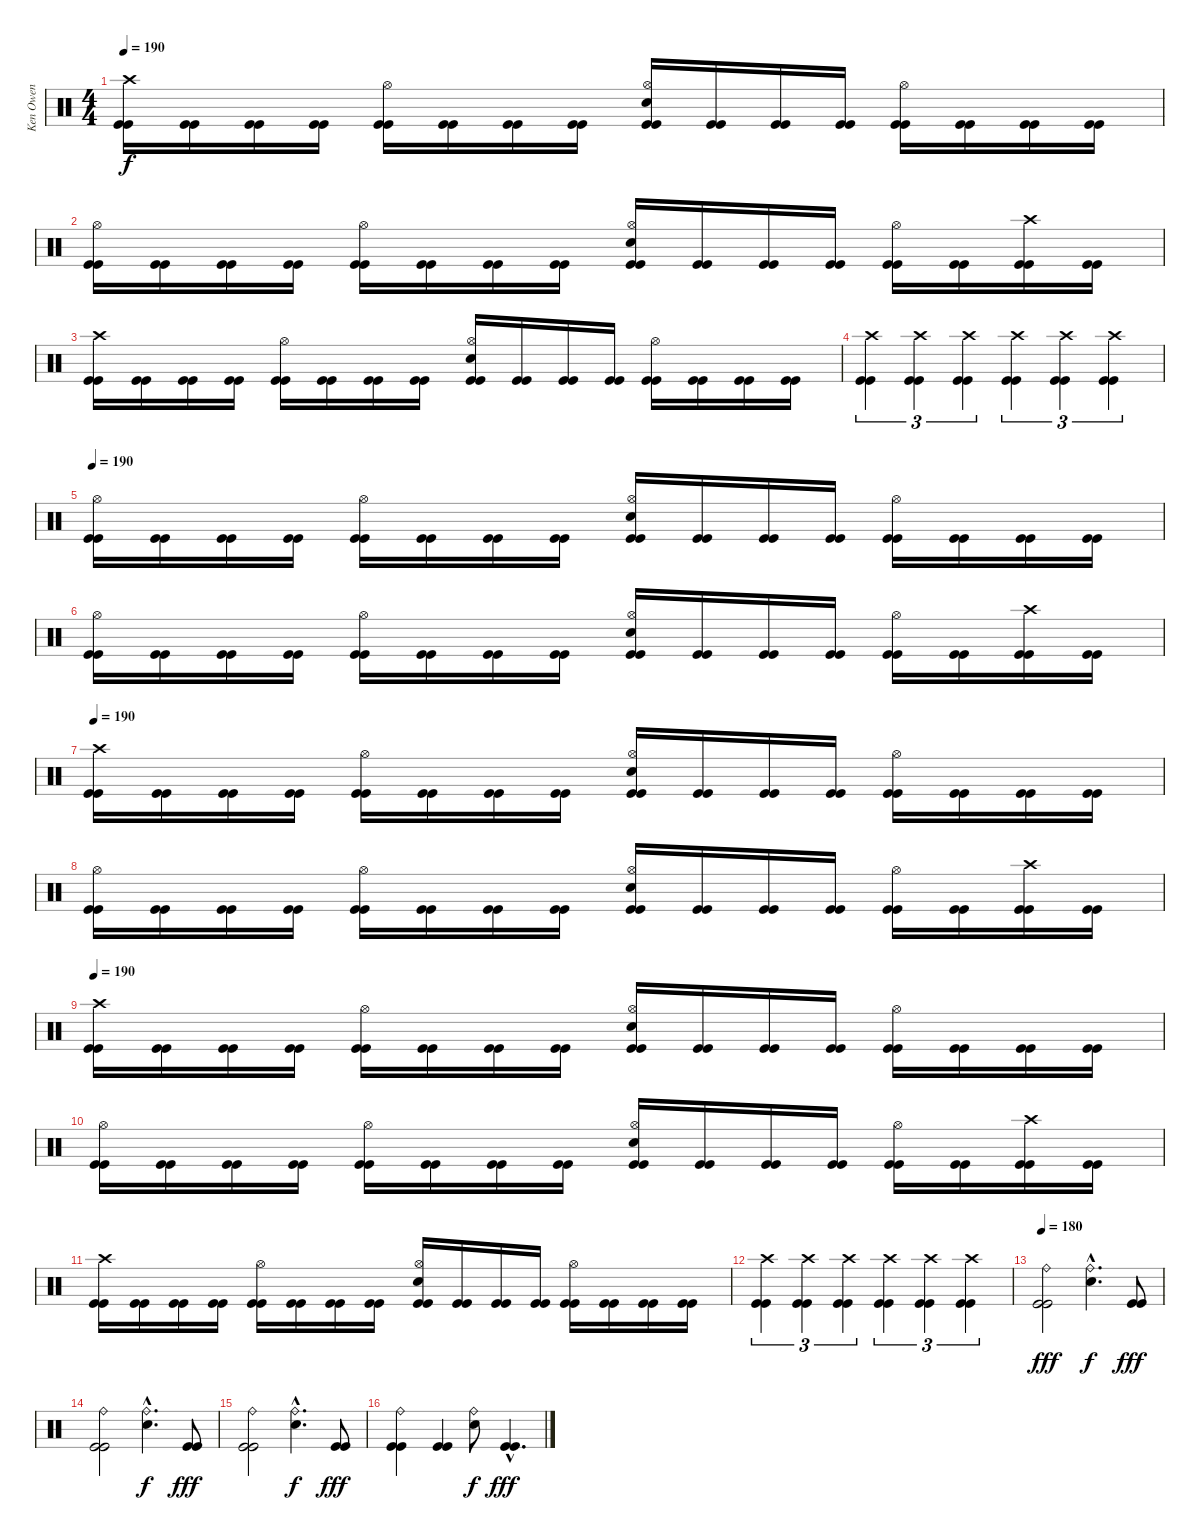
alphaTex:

\track ("Ken Owen" "Ken Owen") {instrument percussion}
\staff {score}
\articulation defaults
\ts (4 4)
\tempo 190
\clef neutral
\ks c
("Crash high (hit)" "Kick (hit)" "Kick (hit)").16{dy f} ("Kick (hit)" "Kick (hit)").16 ("Kick (hit)" "Kick (hit)").16 ("Kick (hit)" "Kick (hit)").16 ("Hi-Hat (open)" "Kick (hit)" "Kick (hit)").16 ("Kick (hit)" "Kick (hit)").16 ("Kick (hit)" "Kick (hit)").16 ("Kick (hit)" "Kick (hit)").16 ("Hi-Hat (open)" "Snare (hit) 2" "Kick (hit)" "Kick (hit)").16 ("Kick (hit)" "Kick (hit)").16 ("Kick (hit)" "Kick (hit)").16 ("Kick (hit)" "Kick (hit)").16 ("Hi-Hat (open)" "Kick (hit)" "Kick (hit)").16 ("Kick (hit)" "Kick (hit)").16 ("Kick (hit)" "Kick (hit)").16 ("Kick (hit)" "Kick (hit)").16 |
("Hi-Hat (open)" "Kick (hit)" "Kick (hit)").16 ("Kick (hit)" "Kick (hit)").16 ("Kick (hit)" "Kick (hit)").16 ("Kick (hit)" "Kick (hit)").16 ("Hi-Hat (open)" "Kick (hit)" "Kick (hit)").16 ("Kick (hit)" "Kick (hit)").16 ("Kick (hit)" "Kick (hit)").16 ("Kick (hit)" "Kick (hit)").16 ("Hi-Hat (open)" "Snare (hit) 2" "Kick (hit)" "Kick (hit)").16 ("Kick (hit)" "Kick (hit)").16 ("Kick (hit)" "Kick (hit)").16 ("Kick (hit)" "Kick (hit)").16 ("Hi-Hat (open)" "Kick (hit)" "Kick (hit)").16 ("Kick (hit)" "Kick (hit)").16 ("Crash high (hit)" "Kick (hit)" "Kick (hit)").16 ("Kick (hit)" "Kick (hit)").16 |
("Crash high (hit)" "Kick (hit)" "Kick (hit)").16 ("Kick (hit)" "Kick (hit)").16 ("Kick (hit)" "Kick (hit)").16 ("Kick (hit)" "Kick (hit)").16 ("Hi-Hat (open)" "Kick (hit)" "Kick (hit)").16 ("Kick (hit)" "Kick (hit)").16 ("Kick (hit)" "Kick (hit)").16 ("Kick (hit)" "Kick (hit)").16 ("Hi-Hat (open)" "Snare (hit) 2" "Kick (hit)" "Kick (hit)").16 ("Kick (hit)" "Kick (hit)").16 ("Kick (hit)" "Kick (hit)").16 ("Kick (hit)" "Kick (hit)").16 ("Hi-Hat (open)" "Kick (hit)" "Kick (hit)").16 ("Kick (hit)" "Kick (hit)").16 ("Kick (hit)" "Kick (hit)").16 ("Kick (hit)" "Kick (hit)").16 |
("Crash high (hit)" "Kick (hit)" "Kick (hit)").4{tu (3 2)} ("Crash high (hit)" "Kick (hit)" "Kick (hit)").4{tu (3 2)} ("Crash high (hit)" "Kick (hit)" "Kick (hit)").4{tu (3 2)} ("Crash high (hit)" "Kick (hit)" "Kick (hit)").4{tu (3 2)} ("Crash high (hit)" "Kick (hit)" "Kick (hit)").4{tu (3 2)} ("Crash high (hit)" "Kick (hit)" "Kick (hit)").4{tu (3 2)} |
\tempo 190
("Hi-Hat (open)" "Kick (hit)" "Kick (hit)").16 ("Kick (hit)" "Kick (hit)").16 ("Kick (hit)" "Kick (hit)").16 ("Kick (hit)" "Kick (hit)").16 ("Hi-Hat (open)" "Kick (hit)" "Kick (hit)").16 ("Kick (hit)" "Kick (hit)").16 ("Kick (hit)" "Kick (hit)").16 ("Kick (hit)" "Kick (hit)").16 ("Hi-Hat (open)" "Snare (hit) 2" "Kick (hit)" "Kick (hit)").16 ("Kick (hit)" "Kick (hit)").16 ("Kick (hit)" "Kick (hit)").16 ("Kick (hit)" "Kick (hit)").16 ("Hi-Hat (open)" "Kick (hit)" "Kick (hit)").16 ("Kick (hit)" "Kick (hit)").16 ("Kick (hit)" "Kick (hit)").16 ("Kick (hit)" "Kick (hit)").16 |
("Hi-Hat (open)" "Kick (hit)" "Kick (hit)").16 ("Kick (hit)" "Kick (hit)").16 ("Kick (hit)" "Kick (hit)").16 ("Kick (hit)" "Kick (hit)").16 ("Hi-Hat (open)" "Kick (hit)" "Kick (hit)").16 ("Kick (hit)" "Kick (hit)").16 ("Kick (hit)" "Kick (hit)").16 ("Kick (hit)" "Kick (hit)").16 ("Hi-Hat (open)" "Snare (hit) 2" "Kick (hit)" "Kick (hit)").16 ("Kick (hit)" "Kick (hit)").16 ("Kick (hit)" "Kick (hit)").16 ("Kick (hit)" "Kick (hit)").16 ("Hi-Hat (open)" "Kick (hit)" "Kick (hit)").16 ("Kick (hit)" "Kick (hit)").16 ("Crash high (hit)" "Kick (hit)" "Kick (hit)").16 ("Kick (hit)" "Kick (hit)").16 |
\tempo 190
("Crash high (hit)" "Kick (hit)" "Kick (hit)").16 ("Kick (hit)" "Kick (hit)").16 ("Kick (hit)" "Kick (hit)").16 ("Kick (hit)" "Kick (hit)").16 ("Hi-Hat (open)" "Kick (hit)" "Kick (hit)").16 ("Kick (hit)" "Kick (hit)").16 ("Kick (hit)" "Kick (hit)").16 ("Kick (hit)" "Kick (hit)").16 ("Hi-Hat (open)" "Snare (hit) 2" "Kick (hit)" "Kick (hit)").16 ("Kick (hit)" "Kick (hit)").16 ("Kick (hit)" "Kick (hit)").16 ("Kick (hit)" "Kick (hit)").16 ("Hi-Hat (open)" "Kick (hit)" "Kick (hit)").16 ("Kick (hit)" "Kick (hit)").16 ("Kick (hit)" "Kick (hit)").16 ("Kick (hit)" "Kick (hit)").16 |
("Hi-Hat (open)" "Kick (hit)" "Kick (hit)").16 ("Kick (hit)" "Kick (hit)").16 ("Kick (hit)" "Kick (hit)").16 ("Kick (hit)" "Kick (hit)").16 ("Hi-Hat (open)" "Kick (hit)" "Kick (hit)").16 ("Kick (hit)" "Kick (hit)").16 ("Kick (hit)" "Kick (hit)").16 ("Kick (hit)" "Kick (hit)").16 ("Hi-Hat (open)" "Snare (hit) 2" "Kick (hit)" "Kick (hit)").16 ("Kick (hit)" "Kick (hit)").16 ("Kick (hit)" "Kick (hit)").16 ("Kick (hit)" "Kick (hit)").16 ("Hi-Hat (open)" "Kick (hit)" "Kick (hit)").16 ("Kick (hit)" "Kick (hit)").16 ("Crash high (hit)" "Kick (hit)" "Kick (hit)").16 ("Kick (hit)" "Kick (hit)").16 |
\tempo 190
("Crash high (hit)" "Kick (hit)" "Kick (hit)").16 ("Kick (hit)" "Kick (hit)").16 ("Kick (hit)" "Kick (hit)").16 ("Kick (hit)" "Kick (hit)").16 ("Hi-Hat (open)" "Kick (hit)" "Kick (hit)").16 ("Kick (hit)" "Kick (hit)").16 ("Kick (hit)" "Kick (hit)").16 ("Kick (hit)" "Kick (hit)").16 ("Hi-Hat (open)" "Snare (hit) 2" "Kick (hit)" "Kick (hit)").16 ("Kick (hit)" "Kick (hit)").16 ("Kick (hit)" "Kick (hit)").16 ("Kick (hit)" "Kick (hit)").16 ("Hi-Hat (open)" "Kick (hit)" "Kick (hit)").16 ("Kick (hit)" "Kick (hit)").16 ("Kick (hit)" "Kick (hit)").16 ("Kick (hit)" "Kick (hit)").16 |
("Hi-Hat (open)" "Kick (hit)" "Kick (hit)").16 ("Kick (hit)" "Kick (hit)").16 ("Kick (hit)" "Kick (hit)").16 ("Kick (hit)" "Kick (hit)").16 ("Hi-Hat (open)" "Kick (hit)" "Kick (hit)").16 ("Kick (hit)" "Kick (hit)").16 ("Kick (hit)" "Kick (hit)").16 ("Kick (hit)" "Kick (hit)").16 ("Hi-Hat (open)" "Snare (hit) 2" "Kick (hit)" "Kick (hit)").16 ("Kick (hit)" "Kick (hit)").16 ("Kick (hit)" "Kick (hit)").16 ("Kick (hit)" "Kick (hit)").16 ("Hi-Hat (open)" "Kick (hit)" "Kick (hit)").16 ("Kick (hit)" "Kick (hit)").16 ("Crash high (hit)" "Kick (hit)" "Kick (hit)").16 ("Kick (hit)" "Kick (hit)").16 |
("Crash high (hit)" "Kick (hit)" "Kick (hit)").16 ("Kick (hit)" "Kick (hit)").16 ("Kick (hit)" "Kick (hit)").16 ("Kick (hit)" "Kick (hit)").16 ("Hi-Hat (open)" "Kick (hit)" "Kick (hit)").16 ("Kick (hit)" "Kick (hit)").16 ("Kick (hit)" "Kick (hit)").16 ("Kick (hit)" "Kick (hit)").16 ("Hi-Hat (open)" "Snare (hit) 2" "Kick (hit)" "Kick (hit)").16 ("Kick (hit)" "Kick (hit)").16 ("Kick (hit)" "Kick (hit)").16 ("Kick (hit)" "Kick (hit)").16 ("Hi-Hat (open)" "Kick (hit)" "Kick (hit)").16 ("Kick (hit)" "Kick (hit)").16 ("Kick (hit)" "Kick (hit)").16 ("Kick (hit)" "Kick (hit)").16 |
("Crash high (hit)" "Kick (hit)" "Kick (hit)").4{tu (3 2)} ("Crash high (hit)" "Kick (hit)" "Kick (hit)").4{tu (3 2)} ("Crash high (hit)" "Kick (hit)" "Kick (hit)").4{tu (3 2)} ("Crash high (hit)" "Kick (hit)" "Kick (hit)").4{tu (3 2)} ("Crash high (hit)" "Kick (hit)" "Kick (hit)").4{tu (3 2)} ("Crash high (hit)" "Kick (hit)" "Kick (hit)").4{tu (3 2)} |
\tempo 180
("Ride (bell)" "Kick (hit)" "Kick (hit)").2{dy fff} ("Ride (bell)"{hac} "Snare (hit) 2"{hac}).4{d dy f} ("Kick (hit)" "Kick (hit)").8{dy fff} |
("Ride (bell)" "Kick (hit)" "Kick (hit)").2 ("Ride (bell)"{hac} "Snare (hit) 2"{hac}).4{d dy f} ("Kick (hit)" "Kick (hit)").8{dy fff} |
("Ride (bell)" "Kick (hit)" "Kick (hit)").2 ("Ride (bell)"{hac} "Snare (hit) 2"{hac}).4{d dy f} ("Kick (hit)" "Kick (hit)").8{dy fff} |
("Ride (bell)" "Kick (hit)" "Kick (hit)").4 ("Kick (hit)" "Kick (hit)").4 ("Ride (bell)" "Snare (hit) 2").8{dy f} ("Kick (hit)"{hac} "Kick (hit)"{hac}).4{d dy fff}
